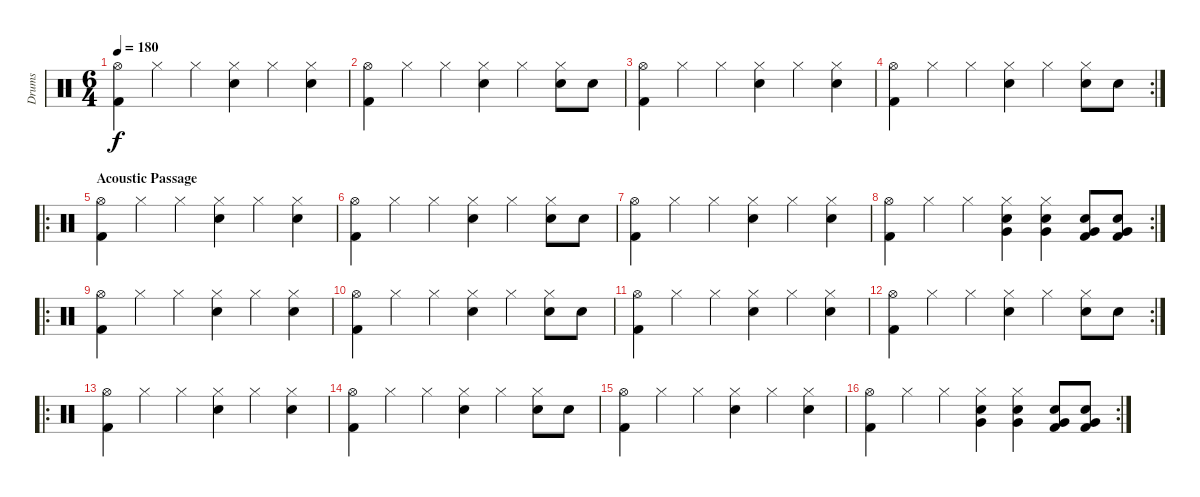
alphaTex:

\track ("Drums" "Drums") {instrument percussion}
\staff {score}
\articulation defaults
\ts (6 4)
\tempo 180
\clef neutral
\ks c
("Hi-Hat (open)" "Kick (hit) 2").4{dy f} "Hi-Hat (closed)".4 "Hi-Hat (closed)".4 ("Hi-Hat (closed)" "Snare (hit) 2").4 "Hi-Hat (closed)".4 ("Hi-Hat (closed)" "Snare (hit) 2").4 |
("Hi-Hat (open)" "Kick (hit) 2").4 "Hi-Hat (closed)".4 "Hi-Hat (closed)".4 ("Hi-Hat (closed)" "Snare (hit) 2").4 "Hi-Hat (closed)".4 ("Hi-Hat (closed)" "Snare (hit) 2").8 "Snare (hit) 2".8 |
("Hi-Hat (open)" "Kick (hit) 2").4 "Hi-Hat (closed)".4 "Hi-Hat (closed)".4 ("Hi-Hat (closed)" "Snare (hit) 2").4 "Hi-Hat (closed)".4 ("Hi-Hat (closed)" "Snare (hit) 2").4 |
\rc 2
("Hi-Hat (open)" "Kick (hit) 2").4 "Hi-Hat (closed)".4 "Hi-Hat (closed)".4 ("Hi-Hat (closed)" "Snare (hit) 2").4 "Hi-Hat (closed)".4 ("Hi-Hat (closed)" "Snare (hit) 2").8 "Snare (hit) 2".8 |
\ro
\section ("" "Acoustic Passage")
("Hi-Hat (open)" "Kick (hit) 2").4 "Hi-Hat (closed)".4 "Hi-Hat (closed)".4 ("Hi-Hat (closed)" "Snare (hit) 2").4 "Hi-Hat (closed)".4 ("Hi-Hat (closed)" "Snare (hit) 2").4 |
("Hi-Hat (open)" "Kick (hit) 2").4 "Hi-Hat (closed)".4 "Hi-Hat (closed)".4 ("Hi-Hat (closed)" "Snare (hit) 2").4 "Hi-Hat (closed)".4 ("Hi-Hat (closed)" "Snare (hit) 2").8 "Snare (hit) 2".8 |
("Hi-Hat (open)" "Kick (hit) 2").4 "Hi-Hat (closed)".4 "Hi-Hat (closed)".4 ("Hi-Hat (closed)" "Snare (hit) 2").4 "Hi-Hat (closed)".4 ("Hi-Hat (closed)" "Snare (hit) 2").4 |
\rc 2
("Hi-Hat (open)" "Kick (hit) 2").4 "Hi-Hat (closed)".4 "Hi-Hat (closed)".4 ("Hi-Hat (closed)" "Snare (hit) 2" "Very Low Tom (hit)").4 ("Hi-Hat (closed)" "Snare (hit) 2" "Very Low Tom (hit)").4 ("Snare (hit) 2" "Very Low Tom (hit)" "Kick (hit) 2").8 ("Snare (hit) 2" "Very Low Tom (hit)" "Kick (hit) 2").8 |
\ro
("Hi-Hat (open)" "Kick (hit) 2").4 "Hi-Hat (closed)".4 "Hi-Hat (closed)".4 ("Hi-Hat (closed)" "Snare (hit) 2").4 "Hi-Hat (closed)".4 ("Hi-Hat (closed)" "Snare (hit) 2").4 |
("Hi-Hat (open)" "Kick (hit) 2").4 "Hi-Hat (closed)".4 "Hi-Hat (closed)".4 ("Hi-Hat (closed)" "Snare (hit) 2").4 "Hi-Hat (closed)".4 ("Hi-Hat (closed)" "Snare (hit) 2").8 "Snare (hit) 2".8 |
("Hi-Hat (open)" "Kick (hit) 2").4 "Hi-Hat (closed)".4 "Hi-Hat (closed)".4 ("Hi-Hat (closed)" "Snare (hit) 2").4 "Hi-Hat (closed)".4 ("Hi-Hat (closed)" "Snare (hit) 2").4 |
\rc 2
("Hi-Hat (open)" "Kick (hit) 2").4 "Hi-Hat (closed)".4 "Hi-Hat (closed)".4 ("Hi-Hat (closed)" "Snare (hit) 2").4 "Hi-Hat (closed)".4 ("Hi-Hat (closed)" "Snare (hit) 2").8 "Snare (hit) 2".8 |
\ro
\section ("" "")
("Hi-Hat (open)" "Kick (hit) 2").4 "Hi-Hat (closed)".4 "Hi-Hat (closed)".4 ("Hi-Hat (closed)" "Snare (hit) 2").4 "Hi-Hat (closed)".4 ("Hi-Hat (closed)" "Snare (hit) 2").4 |
("Hi-Hat (open)" "Kick (hit) 2").4 "Hi-Hat (closed)".4 "Hi-Hat (closed)".4 ("Hi-Hat (closed)" "Snare (hit) 2").4 "Hi-Hat (closed)".4 ("Hi-Hat (closed)" "Snare (hit) 2").8 "Snare (hit) 2".8 |
("Hi-Hat (open)" "Kick (hit) 2").4 "Hi-Hat (closed)".4 "Hi-Hat (closed)".4 ("Hi-Hat (closed)" "Snare (hit) 2").4 "Hi-Hat (closed)".4 ("Hi-Hat (closed)" "Snare (hit) 2").4 |
\rc 2
("Hi-Hat (open)" "Kick (hit) 2").4 "Hi-Hat (closed)".4 "Hi-Hat (closed)".4 ("Hi-Hat (closed)" "Snare (hit) 2" "Very Low Tom (hit)").4 ("Hi-Hat (closed)" "Snare (hit) 2" "Very Low Tom (hit)").4 ("Snare (hit) 2" "Very Low Tom (hit)" "Kick (hit) 2").8 ("Snare (hit) 2" "Very Low Tom (hit)" "Kick (hit) 2").8
